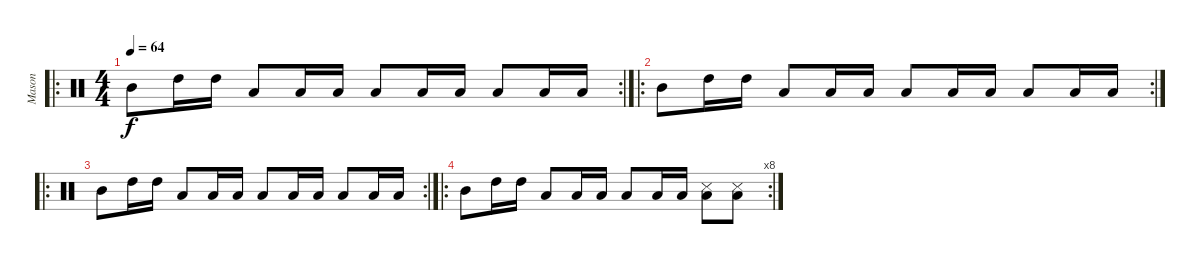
\track ("Mason" "Mason") {instrument percussion}
\staff {score}
\articulation defaults
\ro
\rc 2
\ts (4 4)
\tempo 64
\clef neutral
\ks c "Mid Tom (hit)".8{dy f} "High Tom (hit)".16 "High Tom (hit)".16 "Low Tom (hit)".8 "Low Tom (hit)".16 "Low Tom (hit)".16 "Low Floor Tom (hit)".8 "Low Floor Tom (hit)".16 "Low Floor Tom (hit)".16 "Low Floor Tom (hit)".8 "Low Tom (hit)".16 "Low Tom (hit)".16
|
\ro
\rc 2 "Mid Tom (hit)".8 "High Tom (hit)".16 "High Tom (hit)".16 "Low Tom (hit)".8 "Low Tom (hit)".16 "Low Tom (hit)".16 "Low Floor Tom (hit)".8 "Low Floor Tom (hit)".16 "Low Floor Tom (hit)".16 "Low Floor Tom (hit)".8 "Low Tom (hit)".16 "Low Tom (hit)".16
|
\ro
\rc 2 "Mid Tom (hit)".8 "High Tom (hit)".16 "High Tom (hit)".16 "Low Tom (hit)".8 "Low Tom (hit)".16 "Low Tom (hit)".16 "Low Floor Tom (hit)".8 "Low Floor Tom (hit)".16 "Low Floor Tom (hit)".16 "Low Floor Tom (hit)".8 "Low Tom (hit)".16 "Low Tom (hit)".16
|
\ro
\rc 8 "Mid Tom (hit)".8 "High Tom (hit)".16 "High Tom (hit)".16 "Low Tom (hit)".8 "Low Tom (hit)".16 "Low Tom (hit)".16 "Low Floor Tom (hit)".8 "Low Floor Tom (hit)".16 "Low Floor Tom (hit)".16
("Snare (side stick) 3" "Low Floor Tom (hit)").8 ("Snare (side stick) 3" "Low Floor Tom (hit)").8
